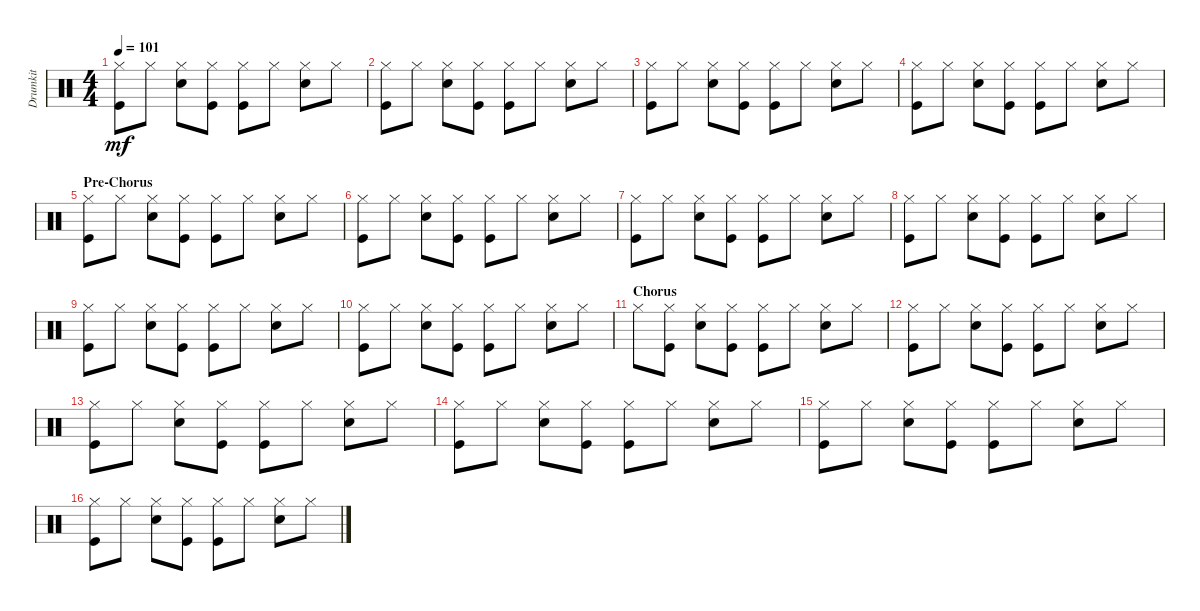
\track ("Drumkit" "Drumkit") {instrument percussion}
\staff {score}
\articulation defaults
\ts (4 4)
\tempo 101
\clef neutral
\ks c
("Kick (hit)" "Hi-Hat (closed)").8{dy mf} "Hi-Hat (closed)".8 ("Hi-Hat (closed)" "Snare (hit) 2").8 ("Hi-Hat (closed)" "Kick (hit)").8 ("Hi-Hat (closed)" "Kick (hit)").8 "Hi-Hat (closed)".8 ("Hi-Hat (closed)" "Snare (hit) 2").8 "Hi-Hat (closed)".8 |
("Kick (hit)" "Hi-Hat (closed)").8 "Hi-Hat (closed)".8 ("Hi-Hat (closed)" "Snare (hit) 2").8 ("Hi-Hat (closed)" "Kick (hit)").8 ("Hi-Hat (closed)" "Kick (hit)").8 "Hi-Hat (closed)".8 ("Hi-Hat (closed)" "Snare (hit) 2").8 "Hi-Hat (closed)".8 |
("Kick (hit)" "Hi-Hat (closed)").8 "Hi-Hat (closed)".8 ("Hi-Hat (closed)" "Snare (hit) 2").8 ("Hi-Hat (closed)" "Kick (hit)").8 ("Hi-Hat (closed)" "Kick (hit)").8 "Hi-Hat (closed)".8 ("Hi-Hat (closed)" "Snare (hit) 2").8 "Hi-Hat (closed)".8 |
("Kick (hit)" "Hi-Hat (closed)").8 "Hi-Hat (closed)".8 ("Hi-Hat (closed)" "Snare (hit) 2").8 ("Hi-Hat (closed)" "Kick (hit)").8 ("Hi-Hat (closed)" "Kick (hit)").8 "Hi-Hat (closed)".8 ("Hi-Hat (closed)" "Snare (hit) 2").8 "Hi-Hat (closed)".8 |
\section ("" "Pre-Chorus")
("Kick (hit)" "Hi-Hat (closed)").8 "Hi-Hat (closed)".8 ("Hi-Hat (closed)" "Snare (hit) 2").8 ("Hi-Hat (closed)" "Kick (hit)").8 ("Hi-Hat (closed)" "Kick (hit)").8 "Hi-Hat (closed)".8 ("Hi-Hat (closed)" "Snare (hit) 2").8 "Hi-Hat (closed)".8 |
("Kick (hit)" "Hi-Hat (closed)").8 "Hi-Hat (closed)".8 ("Hi-Hat (closed)" "Snare (hit) 2").8 ("Hi-Hat (closed)" "Kick (hit)").8 ("Hi-Hat (closed)" "Kick (hit)").8 "Hi-Hat (closed)".8 ("Hi-Hat (closed)" "Snare (hit) 2").8 "Hi-Hat (closed)".8 |
("Kick (hit)" "Hi-Hat (closed)").8 "Hi-Hat (closed)".8 ("Hi-Hat (closed)" "Snare (hit) 2").8 ("Hi-Hat (closed)" "Kick (hit)").8 ("Hi-Hat (closed)" "Kick (hit)").8 "Hi-Hat (closed)".8 ("Hi-Hat (closed)" "Snare (hit) 2").8 "Hi-Hat (closed)".8 |
("Kick (hit)" "Hi-Hat (closed)").8 "Hi-Hat (closed)".8 ("Hi-Hat (closed)" "Snare (hit) 2").8 ("Hi-Hat (closed)" "Kick (hit)").8 ("Hi-Hat (closed)" "Kick (hit)").8 "Hi-Hat (closed)".8 ("Hi-Hat (closed)" "Snare (hit) 2").8 "Hi-Hat (closed)".8 |
("Kick (hit)" "Hi-Hat (closed)").8 "Hi-Hat (closed)".8 ("Hi-Hat (closed)" "Snare (hit) 2").8 ("Hi-Hat (closed)" "Kick (hit)").8 ("Hi-Hat (closed)" "Kick (hit)").8 "Hi-Hat (closed)".8 ("Hi-Hat (closed)" "Snare (hit) 2").8 "Hi-Hat (closed)".8 |
("Kick (hit)" "Hi-Hat (closed)").8 "Hi-Hat (closed)".8 ("Hi-Hat (closed)" "Snare (hit) 2").8 ("Hi-Hat (closed)" "Kick (hit)").8 ("Hi-Hat (closed)" "Kick (hit)").8 "Hi-Hat (closed)".8 ("Hi-Hat (closed)" "Snare (hit) 2").8 "Hi-Hat (closed)".8 |
\section ("" "Chorus")
"Hi-Hat (closed)".8 ("Hi-Hat (closed)" "Kick (hit)").8 ("Hi-Hat (closed)" "Snare (hit) 2").8 ("Hi-Hat (closed)" "Kick (hit)").8 ("Hi-Hat (closed)" "Kick (hit)").8 "Hi-Hat (closed)".8 ("Hi-Hat (closed)" "Snare (hit) 2").8 "Hi-Hat (closed)".8 |
("Kick (hit)" "Hi-Hat (closed)").8 "Hi-Hat (closed)".8 ("Hi-Hat (closed)" "Snare (hit) 2").8 ("Hi-Hat (closed)" "Kick (hit)").8 ("Hi-Hat (closed)" "Kick (hit)").8 "Hi-Hat (closed)".8 ("Hi-Hat (closed)" "Snare (hit) 2").8 "Hi-Hat (closed)".8 |
("Kick (hit)" "Hi-Hat (closed)").8 "Hi-Hat (closed)".8 ("Hi-Hat (closed)" "Snare (hit) 2").8 ("Hi-Hat (closed)" "Kick (hit)").8 ("Hi-Hat (closed)" "Kick (hit)").8 "Hi-Hat (closed)".8 ("Hi-Hat (closed)" "Snare (hit) 2").8 "Hi-Hat (closed)".8 |
("Kick (hit)" "Hi-Hat (closed)").8 "Hi-Hat (closed)".8 ("Hi-Hat (closed)" "Snare (hit) 2").8 ("Hi-Hat (closed)" "Kick (hit)").8 ("Hi-Hat (closed)" "Kick (hit)").8 "Hi-Hat (closed)".8 ("Hi-Hat (closed)" "Snare (hit) 2").8 "Hi-Hat (closed)".8 |
("Hi-Hat (closed)" "Kick (hit)").8 "Hi-Hat (closed)".8 ("Hi-Hat (closed)" "Snare (hit) 2").8 ("Hi-Hat (closed)" "Kick (hit)").8 ("Hi-Hat (closed)" "Kick (hit)").8 "Hi-Hat (closed)".8 ("Hi-Hat (closed)" "Snare (hit) 2").8 "Hi-Hat (closed)".8 |
("Kick (hit)" "Hi-Hat (closed)").8 "Hi-Hat (closed)".8 ("Hi-Hat (closed)" "Snare (hit) 2").8 ("Hi-Hat (closed)" "Kick (hit)").8 ("Hi-Hat (closed)" "Kick (hit)").8 "Hi-Hat (closed)".8 ("Hi-Hat (closed)" "Snare (hit) 2").8 "Hi-Hat (closed)".8
